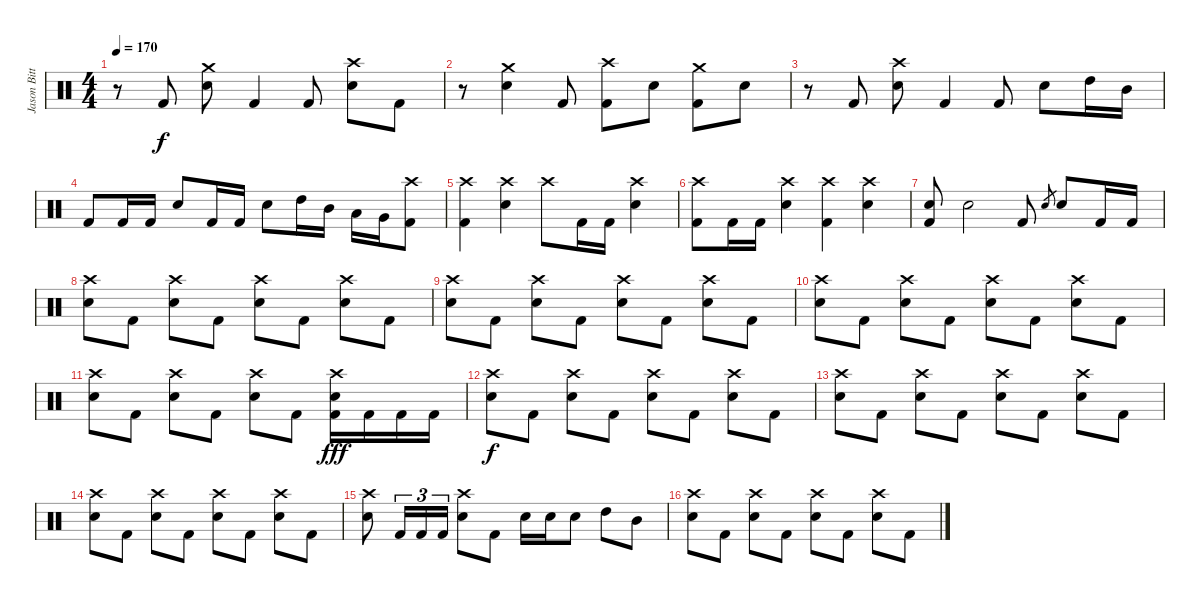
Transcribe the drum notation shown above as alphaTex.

\track ("Jason Bittner" "Jason Bitt") {instrument percussion}
\staff {score}
\articulation defaults
\ts (4 4)
\tempo 170
\clef neutral
\ks c
r.8{dy f} "Kick (hit) 2".8 ("Crash medium (hit)" "Electric Snare (hit)").8 "Kick (hit) 2".4 "Kick (hit) 2".8 ("Crash high (hit)" "Electric Snare (hit)").8 "Kick (hit) 2".8 |
r.8 ("Crash medium (hit)" "Electric Snare (hit)").4 "Kick (hit) 2".8 ("Crash high (hit)" "Kick (hit) 2").8 "Electric Snare (hit)".8 ("Crash medium (hit)" "Kick (hit) 2").8 "Electric Snare (hit)".8 |
r.8 "Kick (hit) 2".8 ("Crash high (hit)" "Electric Snare (hit)").8 "Kick (hit) 2".4 "Kick (hit) 2".8 "Electric Snare (hit)".8 "High Tom (hit)".16 "Mid Tom (hit)".16 |
"Kick (hit) 2".8 "Kick (hit) 2".16 "Kick (hit) 2".16 "Electric Snare (hit)".8 "Kick (hit) 2".16 "Kick (hit) 2".16 "Electric Snare (hit)".8 "High Tom (hit)".16 "Mid Tom (hit)".16 "Low Tom (hit)".16 "Very Low Tom (hit)".16 ("Crash high (hit)" "Kick (hit) 2").8 |
("Crash high (hit)" "Kick (hit) 2").4 ("Crash high (hit)" "Electric Snare (hit)").4 "Crash high (hit)".8 "Kick (hit) 2".16 "Kick (hit) 2".16 ("Crash high (hit)" "Electric Snare (hit)").4 |
("Crash high (hit)" "Kick (hit) 2").8 "Kick (hit) 2".16 "Kick (hit) 2".16 ("Crash high (hit)" "Electric Snare (hit)").4 ("Crash high (hit)" "Kick (hit) 2").4 ("Crash high (hit)" "Electric Snare (hit)").4 |
("Electric Snare (hit)" "Kick (hit) 2").8 "Electric Snare (hit)".2 "Kick (hit) 2".8 "Electric Snare (hit)".8{gr} "Electric Snare (hit)".8 "Kick (hit) 2".16 "Kick (hit) 2".16 |
("Crash high (hit)" "Electric Snare (hit)").8 "Kick (hit) 2".8 ("Crash high (hit)" "Electric Snare (hit)").8 "Kick (hit) 2".8 ("Crash high (hit)" "Electric Snare (hit)").8 "Kick (hit) 2".8 ("Crash high (hit)" "Electric Snare (hit)").8 "Kick (hit) 2".8 |
("Crash high (hit)" "Electric Snare (hit)").8 "Kick (hit) 2".8 ("Crash high (hit)" "Electric Snare (hit)").8 "Kick (hit) 2".8 ("Crash high (hit)" "Electric Snare (hit)").8 "Kick (hit) 2".8 ("Crash high (hit)" "Electric Snare (hit)").8 "Kick (hit) 2".8 |
("Crash high (hit)" "Electric Snare (hit)").8 "Kick (hit) 2".8 ("Crash high (hit)" "Electric Snare (hit)").8 "Kick (hit) 2".8 ("Crash high (hit)" "Electric Snare (hit)").8 "Kick (hit) 2".8 ("Crash high (hit)" "Electric Snare (hit)").8 "Kick (hit) 2".8 |
("Crash high (hit)" "Electric Snare (hit)").8 "Kick (hit) 2".8 ("Crash high (hit)" "Electric Snare (hit)").8 "Kick (hit) 2".8 ("Crash high (hit)" "Electric Snare (hit)").8 "Kick (hit) 2".8 ("Crash high (hit)" "Electric Snare (hit)" "Kick (hit) 2").16{dy fff} "Kick (hit) 2".16 "Kick (hit) 2".16 "Kick (hit) 2".16 |
("Crash high (hit)" "Electric Snare (hit)").8{dy f} "Kick (hit) 2".8 ("Crash high (hit)" "Electric Snare (hit)").8 "Kick (hit) 2".8 ("Crash high (hit)" "Electric Snare (hit)").8 "Kick (hit) 2".8 ("Crash high (hit)" "Electric Snare (hit)").8 "Kick (hit) 2".8 |
("Crash high (hit)" "Electric Snare (hit)").8 "Kick (hit) 2".8 ("Crash high (hit)" "Electric Snare (hit)").8 "Kick (hit) 2".8 ("Crash high (hit)" "Electric Snare (hit)").8 "Kick (hit) 2".8 ("Crash high (hit)" "Electric Snare (hit)").8 "Kick (hit) 2".8 |
("Crash high (hit)" "Electric Snare (hit)").8 "Kick (hit) 2".8 ("Crash high (hit)" "Electric Snare (hit)").8 "Kick (hit) 2".8 ("Crash high (hit)" "Electric Snare (hit)").8 "Kick (hit) 2".8 ("Crash high (hit)" "Electric Snare (hit)").8 "Kick (hit) 2".8 |
("Crash high (hit)" "Electric Snare (hit)").8 "Kick (hit) 2".16{tu (3 2)} "Kick (hit) 2".16{tu (3 2)} "Kick (hit) 2".16{tu (3 2)} ("Crash high (hit)" "Electric Snare (hit)").8 "Kick (hit) 2".8 "Electric Snare (hit)".16 "Electric Snare (hit)".16 "Electric Snare (hit)".8 "High Tom (hit)".8 "Mid Tom (hit)".8 |
("Crash high (hit)" "Electric Snare (hit)").8 "Kick (hit) 2".8 ("Crash high (hit)" "Electric Snare (hit)").8 "Kick (hit) 2".8 ("Crash high (hit)" "Electric Snare (hit)").8 "Kick (hit) 2".8 ("Crash high (hit)" "Electric Snare (hit)").8 "Kick (hit) 2".8
